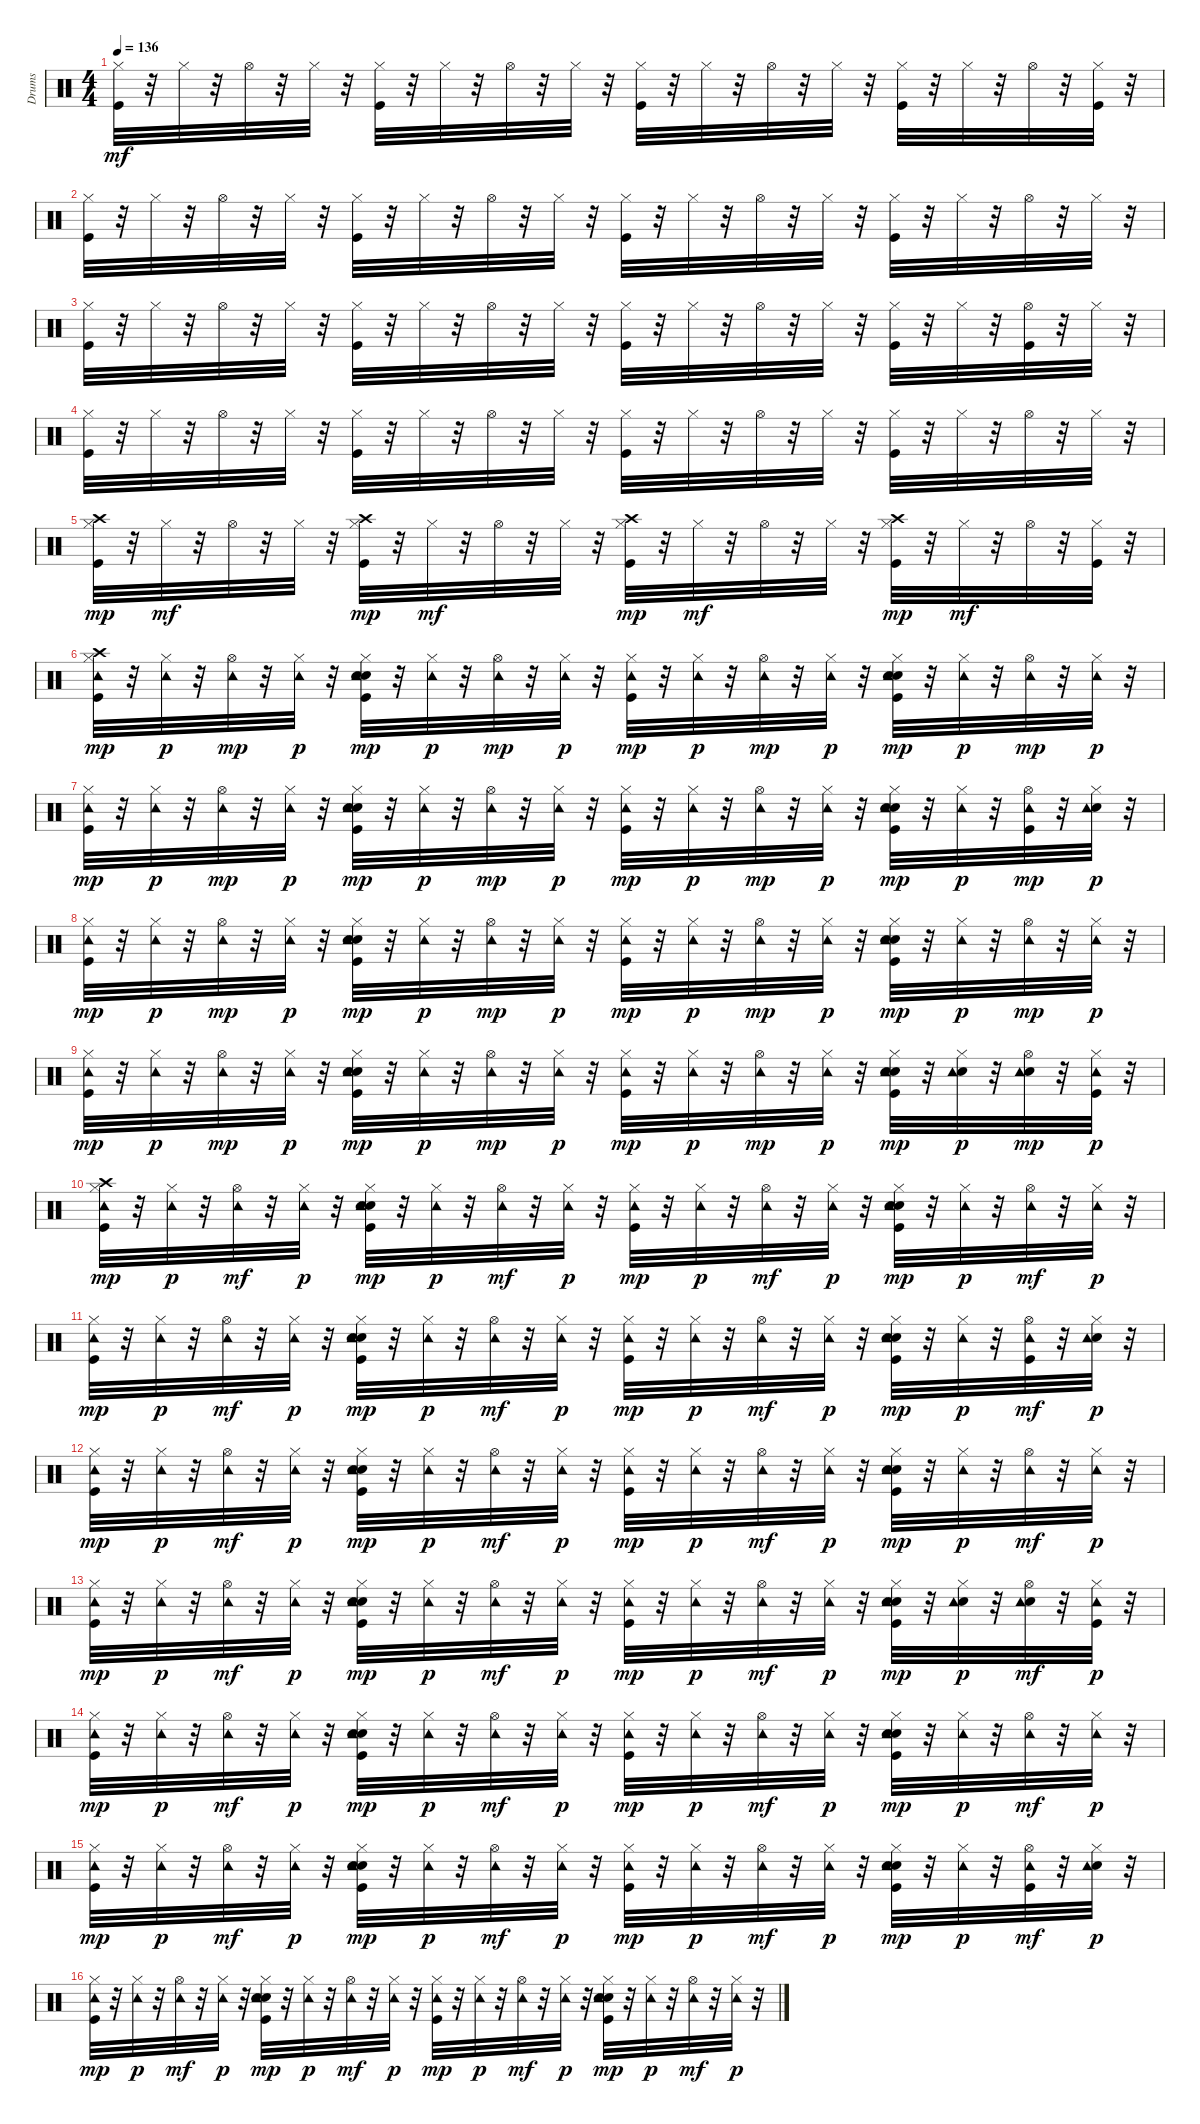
\track ("Drums" "Drums") {instrument percussion}
\staff {score}
\articulation defaults
\ts (4 4)
\tempo 136
\clef neutral
\ks c
("Kick (hit)" "Hi-Hat (closed)").32{dy mf} r.32 "Hi-Hat (closed)".32 r.32 "Hi-Hat (open)".32 r.32 "Hi-Hat (closed)".32 r.32 ("Kick (hit)" "Hi-Hat (closed)").32 r.32 "Hi-Hat (closed)".32 r.32 "Hi-Hat (open)".32 r.32 "Hi-Hat (closed)".32 r.32 ("Kick (hit)" "Hi-Hat (closed)").32 r.32 "Hi-Hat (closed)".32 r.32 "Hi-Hat (open)".32 r.32 "Hi-Hat (closed)".32 r.32 ("Kick (hit)" "Hi-Hat (closed)").32 r.32 "Hi-Hat (closed)".32 r.32 "Hi-Hat (open)".32 r.32 ("Kick (hit)" "Hi-Hat (closed)").32 r.32 |
("Kick (hit)" "Hi-Hat (closed)").32 r.32 "Hi-Hat (closed)".32 r.32 "Hi-Hat (open)".32 r.32 "Hi-Hat (closed)".32 r.32 ("Kick (hit)" "Hi-Hat (closed)").32 r.32 "Hi-Hat (closed)".32 r.32 "Hi-Hat (open)".32 r.32 "Hi-Hat (closed)".32 r.32 ("Kick (hit)" "Hi-Hat (closed)").32 r.32 "Hi-Hat (closed)".32 r.32 "Hi-Hat (open)".32 r.32 "Hi-Hat (closed)".32 r.32 ("Kick (hit)" "Hi-Hat (closed)").32 r.32 "Hi-Hat (closed)".32 r.32 "Hi-Hat (open)".32 r.32 "Hi-Hat (closed)".32 r.32 |
("Kick (hit)" "Hi-Hat (closed)").32 r.32 "Hi-Hat (closed)".32 r.32 "Hi-Hat (open)".32 r.32 "Hi-Hat (closed)".32 r.32 ("Kick (hit)" "Hi-Hat (closed)").32 r.32 "Hi-Hat (closed)".32 r.32 "Hi-Hat (open)".32 r.32 "Hi-Hat (closed)".32 r.32 ("Kick (hit)" "Hi-Hat (closed)").32 r.32 "Hi-Hat (closed)".32 r.32 "Hi-Hat (open)".32 r.32 "Hi-Hat (closed)".32 r.32 ("Kick (hit)" "Hi-Hat (closed)").32 r.32 "Hi-Hat (closed)".32 r.32 ("Kick (hit)" "Hi-Hat (open)").32 r.32 "Hi-Hat (closed)".32 r.32 |
("Kick (hit)" "Hi-Hat (closed)").32 r.32 "Hi-Hat (closed)".32 r.32 "Hi-Hat (open)".32 r.32 "Hi-Hat (closed)".32 r.32 ("Kick (hit)" "Hi-Hat (closed)").32 r.32 "Hi-Hat (closed)".32 r.32 "Hi-Hat (open)".32 r.32 "Hi-Hat (closed)".32 r.32 ("Kick (hit)" "Hi-Hat (closed)").32 r.32 "Hi-Hat (closed)".32 r.32 "Hi-Hat (open)".32 r.32 "Hi-Hat (closed)".32 r.32 ("Kick (hit)" "Hi-Hat (closed)").32 r.32 "Hi-Hat (closed)".32 r.32 "Hi-Hat (open)".32 r.32 "Hi-Hat (closed)".32 r.32 |
("Kick (hit)" "Hi-Hat (closed)" "Crash high (hit)").32{dy mp} r.32 "Hi-Hat (closed)".32{dy mf} r.32 "Hi-Hat (open)".32 r.32 "Hi-Hat (closed)".32 r.32 ("Kick (hit)" "Hi-Hat (closed)" "Crash high (hit)").32{dy mp} r.32 "Hi-Hat (closed)".32{dy mf} r.32 "Hi-Hat (open)".32 r.32 "Hi-Hat (closed)".32 r.32 ("Kick (hit)" "Hi-Hat (closed)" "Crash high (hit)").32{dy mp} r.32 "Hi-Hat (closed)".32{dy mf} r.32 "Hi-Hat (open)".32 r.32 "Hi-Hat (closed)".32 r.32 ("Kick (hit)" "Hi-Hat (closed)" "Crash high (hit)").32{dy mp} r.32 "Hi-Hat (closed)".32{dy mf} r.32 "Hi-Hat (open)".32 r.32 ("Kick (hit)" "Hi-Hat (closed)").32 r.32 |
("Kick (hit)" "Hi-Hat (closed)" "Crash high (hit)" "Tambourine (hit)").32{dy mp} r.32 ("Hi-Hat (closed)" "Tambourine (hit)").32{dy p} r.32 ("Hi-Hat (open)" "Tambourine (hit)").32{dy mp} r.32 ("Hi-Hat (closed)" "Tambourine (hit)").32{dy p} r.32 ("Kick (hit)" "Snare (hit) 2" "Hand Clap (hit)" "Hi-Hat (closed)" "Tambourine (hit)").32{dy mp} r.32 ("Hi-Hat (closed)" "Tambourine (hit)").32{dy p} r.32 ("Hi-Hat (open)" "Tambourine (hit)").32{dy mp} r.32 ("Hi-Hat (closed)" "Tambourine (hit)").32{dy p} r.32 ("Kick (hit)" "Hi-Hat (closed)" "Tambourine (hit)").32{dy mp} r.32 ("Hi-Hat (closed)" "Tambourine (hit)").32{dy p} r.32 ("Hi-Hat (open)" "Tambourine (hit)").32{dy mp} r.32 ("Hi-Hat (closed)" "Tambourine (hit)").32{dy p} r.32 ("Kick (hit)" "Snare (hit) 2" "Hand Clap (hit)" "Hi-Hat (closed)" "Tambourine (hit)").32{dy mp} r.32 ("Hi-Hat (closed)" "Tambourine (hit)").32{dy p} r.32 ("Hi-Hat (open)" "Tambourine (hit)").32{dy mp} r.32 ("Hi-Hat (closed)" "Tambourine (hit)").32{dy p} r.32 |
("Kick (hit)" "Hi-Hat (closed)" "Tambourine (hit)").32{dy mp} r.32 ("Hi-Hat (closed)" "Tambourine (hit)").32{dy p} r.32 ("Hi-Hat (open)" "Tambourine (hit)").32{dy mp} r.32 ("Hi-Hat (closed)" "Tambourine (hit)").32{dy p} r.32 ("Kick (hit)" "Snare (hit) 2" "Hand Clap (hit)" "Hi-Hat (closed)" "Tambourine (hit)").32{dy mp} r.32 ("Hi-Hat (closed)" "Tambourine (hit)").32{dy p} r.32 ("Hi-Hat (open)" "Tambourine (hit)").32{dy mp} r.32 ("Hi-Hat (closed)" "Tambourine (hit)").32{dy p} r.32 ("Kick (hit)" "Hi-Hat (closed)" "Tambourine (hit)").32{dy mp} r.32 ("Hi-Hat (closed)" "Tambourine (hit)").32{dy p} r.32 ("Hi-Hat (open)" "Tambourine (hit)").32{dy mp} r.32 ("Hi-Hat (closed)" "Tambourine (hit)").32{dy p} r.32 ("Kick (hit)" "Snare (hit) 2" "Hand Clap (hit)" "Hi-Hat (closed)" "Tambourine (hit)").32{dy mp} r.32 ("Hi-Hat (closed)" "Tambourine (hit)").32{dy p} r.32 ("Kick (hit)" "Hi-Hat (open)" "Tambourine (hit)").32{dy mp} r.32 ("Hand Clap (hit)" "Hi-Hat (closed)" "Tambourine (hit)").32{dy p} r.32 |
("Kick (hit)" "Hi-Hat (closed)" "Tambourine (hit)").32{dy mp} r.32 ("Hi-Hat (closed)" "Tambourine (hit)").32{dy p} r.32 ("Hi-Hat (open)" "Tambourine (hit)").32{dy mp} r.32 ("Hi-Hat (closed)" "Tambourine (hit)").32{dy p} r.32 ("Kick (hit)" "Snare (hit) 2" "Hand Clap (hit)" "Hi-Hat (closed)" "Tambourine (hit)").32{dy mp} r.32 ("Hi-Hat (closed)" "Tambourine (hit)").32{dy p} r.32 ("Hi-Hat (open)" "Tambourine (hit)").32{dy mp} r.32 ("Hi-Hat (closed)" "Tambourine (hit)").32{dy p} r.32 ("Kick (hit)" "Hi-Hat (closed)" "Tambourine (hit)").32{dy mp} r.32 ("Hi-Hat (closed)" "Tambourine (hit)").32{dy p} r.32 ("Hi-Hat (open)" "Tambourine (hit)").32{dy mp} r.32 ("Hi-Hat (closed)" "Tambourine (hit)").32{dy p} r.32 ("Kick (hit)" "Snare (hit) 2" "Hand Clap (hit)" "Hi-Hat (closed)" "Tambourine (hit)").32{dy mp} r.32 ("Hi-Hat (closed)" "Tambourine (hit)").32{dy p} r.32 ("Hi-Hat (open)" "Tambourine (hit)").32{dy mp} r.32 ("Hi-Hat (closed)" "Tambourine (hit)").32{dy p} r.32 |
("Kick (hit)" "Hi-Hat (closed)" "Tambourine (hit)").32{dy mp} r.32 ("Hi-Hat (closed)" "Tambourine (hit)").32{dy p} r.32 ("Hi-Hat (open)" "Tambourine (hit)").32{dy mp} r.32 ("Hi-Hat (closed)" "Tambourine (hit)").32{dy p} r.32 ("Kick (hit)" "Snare (hit) 2" "Hand Clap (hit)" "Hi-Hat (closed)" "Tambourine (hit)").32{dy mp} r.32 ("Hi-Hat (closed)" "Tambourine (hit)").32{dy p} r.32 ("Hi-Hat (open)" "Tambourine (hit)").32{dy mp} r.32 ("Hi-Hat (closed)" "Tambourine (hit)").32{dy p} r.32 ("Kick (hit)" "Hi-Hat (closed)" "Tambourine (hit)").32{dy mp} r.32 ("Hi-Hat (closed)" "Tambourine (hit)").32{dy p} r.32 ("Hi-Hat (open)" "Tambourine (hit)").32{dy mp} r.32 ("Hi-Hat (closed)" "Tambourine (hit)").32{dy p} r.32 ("Kick (hit)" "Snare (hit) 2" "Hand Clap (hit)" "Hi-Hat (closed)" "Tambourine (hit)").32{dy mp} r.32 ("Hand Clap (hit)" "Hi-Hat (closed)" "Tambourine (hit)").32{dy p} r.32 ("Hand Clap (hit)" "Hi-Hat (open)" "Tambourine (hit)").32{dy mp} r.32 ("Kick (hit)" "Hi-Hat (closed)" "Tambourine (hit)").32{dy p} r.32 |
("Kick (hit)" "Hi-Hat (closed)" "Crash high (hit)" "Tambourine (hit)").32{dy mp} r.32 ("Hi-Hat (closed)" "Tambourine (hit)").32{dy p} r.32 ("Hi-Hat (open)" "Tambourine (hit)").32{dy mf} r.32 ("Hi-Hat (closed)" "Tambourine (hit)").32{dy p} r.32 ("Kick (hit)" "Snare (hit) 2" "Hand Clap (hit)" "Hi-Hat (closed)" "Tambourine (hit)").32{dy mp} r.32 ("Hi-Hat (closed)" "Tambourine (hit)").32{dy p} r.32 ("Hi-Hat (open)" "Tambourine (hit)").32{dy mf} r.32 ("Hi-Hat (closed)" "Tambourine (hit)").32{dy p} r.32 ("Kick (hit)" "Hi-Hat (closed)" "Tambourine (hit)").32{dy mp} r.32 ("Hi-Hat (closed)" "Tambourine (hit)").32{dy p} r.32 ("Hi-Hat (open)" "Tambourine (hit)").32{dy mf} r.32 ("Hi-Hat (closed)" "Tambourine (hit)").32{dy p} r.32 ("Kick (hit)" "Snare (hit) 2" "Hand Clap (hit)" "Hi-Hat (closed)" "Tambourine (hit)").32{dy mp} r.32 ("Hi-Hat (closed)" "Tambourine (hit)").32{dy p} r.32 ("Hi-Hat (open)" "Tambourine (hit)").32{dy mf} r.32 ("Hi-Hat (closed)" "Tambourine (hit)").32{dy p} r.32 |
("Kick (hit)" "Hi-Hat (closed)" "Tambourine (hit)").32{dy mp} r.32 ("Hi-Hat (closed)" "Tambourine (hit)").32{dy p} r.32 ("Hi-Hat (open)" "Tambourine (hit)").32{dy mf} r.32 ("Hi-Hat (closed)" "Tambourine (hit)").32{dy p} r.32 ("Kick (hit)" "Snare (hit) 2" "Hand Clap (hit)" "Hi-Hat (closed)" "Tambourine (hit)").32{dy mp} r.32 ("Hi-Hat (closed)" "Tambourine (hit)").32{dy p} r.32 ("Hi-Hat (open)" "Tambourine (hit)").32{dy mf} r.32 ("Hi-Hat (closed)" "Tambourine (hit)").32{dy p} r.32 ("Kick (hit)" "Hi-Hat (closed)" "Tambourine (hit)").32{dy mp} r.32 ("Hi-Hat (closed)" "Tambourine (hit)").32{dy p} r.32 ("Hi-Hat (open)" "Tambourine (hit)").32{dy mf} r.32 ("Hi-Hat (closed)" "Tambourine (hit)").32{dy p} r.32 ("Kick (hit)" "Snare (hit) 2" "Hand Clap (hit)" "Hi-Hat (closed)" "Tambourine (hit)").32{dy mp} r.32 ("Hi-Hat (closed)" "Tambourine (hit)").32{dy p} r.32 ("Kick (hit)" "Hi-Hat (open)" "Tambourine (hit)").32{dy mf} r.32 ("Hand Clap (hit)" "Hi-Hat (closed)" "Tambourine (hit)").32{dy p} r.32 |
("Kick (hit)" "Hi-Hat (closed)" "Tambourine (hit)").32{dy mp} r.32 ("Hi-Hat (closed)" "Tambourine (hit)").32{dy p} r.32 ("Hi-Hat (open)" "Tambourine (hit)").32{dy mf} r.32 ("Hi-Hat (closed)" "Tambourine (hit)").32{dy p} r.32 ("Kick (hit)" "Snare (hit) 2" "Hand Clap (hit)" "Hi-Hat (closed)" "Tambourine (hit)").32{dy mp} r.32 ("Hi-Hat (closed)" "Tambourine (hit)").32{dy p} r.32 ("Hi-Hat (open)" "Tambourine (hit)").32{dy mf} r.32 ("Hi-Hat (closed)" "Tambourine (hit)").32{dy p} r.32 ("Kick (hit)" "Hi-Hat (closed)" "Tambourine (hit)").32{dy mp} r.32 ("Hi-Hat (closed)" "Tambourine (hit)").32{dy p} r.32 ("Hi-Hat (open)" "Tambourine (hit)").32{dy mf} r.32 ("Hi-Hat (closed)" "Tambourine (hit)").32{dy p} r.32 ("Kick (hit)" "Snare (hit) 2" "Hand Clap (hit)" "Hi-Hat (closed)" "Tambourine (hit)").32{dy mp} r.32 ("Hi-Hat (closed)" "Tambourine (hit)").32{dy p} r.32 ("Hi-Hat (open)" "Tambourine (hit)").32{dy mf} r.32 ("Hi-Hat (closed)" "Tambourine (hit)").32{dy p} r.32 |
("Kick (hit)" "Hi-Hat (closed)" "Tambourine (hit)").32{dy mp} r.32 ("Hi-Hat (closed)" "Tambourine (hit)").32{dy p} r.32 ("Hi-Hat (open)" "Tambourine (hit)").32{dy mf} r.32 ("Hi-Hat (closed)" "Tambourine (hit)").32{dy p} r.32 ("Kick (hit)" "Snare (hit) 2" "Hand Clap (hit)" "Hi-Hat (closed)" "Tambourine (hit)").32{dy mp} r.32 ("Hi-Hat (closed)" "Tambourine (hit)").32{dy p} r.32 ("Hi-Hat (open)" "Tambourine (hit)").32{dy mf} r.32 ("Hi-Hat (closed)" "Tambourine (hit)").32{dy p} r.32 ("Kick (hit)" "Hi-Hat (closed)" "Tambourine (hit)").32{dy mp} r.32 ("Hi-Hat (closed)" "Tambourine (hit)").32{dy p} r.32 ("Hi-Hat (open)" "Tambourine (hit)").32{dy mf} r.32 ("Hi-Hat (closed)" "Tambourine (hit)").32{dy p} r.32 ("Kick (hit)" "Snare (hit) 2" "Hand Clap (hit)" "Hi-Hat (closed)" "Tambourine (hit)").32{dy mp} r.32 ("Hand Clap (hit)" "Hi-Hat (closed)" "Tambourine (hit)").32{dy p} r.32 ("Hand Clap (hit)" "Hi-Hat (open)" "Tambourine (hit)").32{dy mf} r.32 ("Kick (hit)" "Hi-Hat (closed)" "Tambourine (hit)").32{dy p} r.32 |
("Kick (hit)" "Hi-Hat (closed)" "Tambourine (hit)").32{dy mp} r.32 ("Hi-Hat (closed)" "Tambourine (hit)").32{dy p} r.32 ("Hi-Hat (open)" "Tambourine (hit)").32{dy mf} r.32 ("Hi-Hat (closed)" "Tambourine (hit)").32{dy p} r.32 ("Kick (hit)" "Snare (hit) 2" "Hand Clap (hit)" "Hi-Hat (closed)" "Tambourine (hit)").32{dy mp} r.32 ("Hi-Hat (closed)" "Tambourine (hit)").32{dy p} r.32 ("Hi-Hat (open)" "Tambourine (hit)").32{dy mf} r.32 ("Hi-Hat (closed)" "Tambourine (hit)").32{dy p} r.32 ("Kick (hit)" "Hi-Hat (closed)" "Tambourine (hit)").32{dy mp} r.32 ("Hi-Hat (closed)" "Tambourine (hit)").32{dy p} r.32 ("Hi-Hat (open)" "Tambourine (hit)").32{dy mf} r.32 ("Hi-Hat (closed)" "Tambourine (hit)").32{dy p} r.32 ("Kick (hit)" "Snare (hit) 2" "Hand Clap (hit)" "Hi-Hat (closed)" "Tambourine (hit)").32{dy mp} r.32 ("Hi-Hat (closed)" "Tambourine (hit)").32{dy p} r.32 ("Hi-Hat (open)" "Tambourine (hit)").32{dy mf} r.32 ("Hi-Hat (closed)" "Tambourine (hit)").32{dy p} r.32 |
("Kick (hit)" "Hi-Hat (closed)" "Tambourine (hit)").32{dy mp} r.32 ("Hi-Hat (closed)" "Tambourine (hit)").32{dy p} r.32 ("Hi-Hat (open)" "Tambourine (hit)").32{dy mf} r.32 ("Hi-Hat (closed)" "Tambourine (hit)").32{dy p} r.32 ("Kick (hit)" "Snare (hit) 2" "Hand Clap (hit)" "Hi-Hat (closed)" "Tambourine (hit)").32{dy mp} r.32 ("Hi-Hat (closed)" "Tambourine (hit)").32{dy p} r.32 ("Hi-Hat (open)" "Tambourine (hit)").32{dy mf} r.32 ("Hi-Hat (closed)" "Tambourine (hit)").32{dy p} r.32 ("Kick (hit)" "Hi-Hat (closed)" "Tambourine (hit)").32{dy mp} r.32 ("Hi-Hat (closed)" "Tambourine (hit)").32{dy p} r.32 ("Hi-Hat (open)" "Tambourine (hit)").32{dy mf} r.32 ("Hi-Hat (closed)" "Tambourine (hit)").32{dy p} r.32 ("Kick (hit)" "Snare (hit) 2" "Hand Clap (hit)" "Hi-Hat (closed)" "Tambourine (hit)").32{dy mp} r.32 ("Hi-Hat (closed)" "Tambourine (hit)").32{dy p} r.32 ("Kick (hit)" "Hi-Hat (open)" "Tambourine (hit)").32{dy mf} r.32 ("Hand Clap (hit)" "Hi-Hat (closed)" "Tambourine (hit)").32{dy p} r.32 |
("Kick (hit)" "Hi-Hat (closed)" "Tambourine (hit)").32{dy mp} r.32 ("Hi-Hat (closed)" "Tambourine (hit)").32{dy p} r.32 ("Hi-Hat (open)" "Tambourine (hit)").32{dy mf} r.32 ("Hi-Hat (closed)" "Tambourine (hit)").32{dy p} r.32 ("Kick (hit)" "Snare (hit) 2" "Hand Clap (hit)" "Hi-Hat (closed)" "Tambourine (hit)").32{dy mp} r.32 ("Hi-Hat (closed)" "Tambourine (hit)").32{dy p} r.32 ("Hi-Hat (open)" "Tambourine (hit)").32{dy mf} r.32 ("Hi-Hat (closed)" "Tambourine (hit)").32{dy p} r.32 ("Kick (hit)" "Hi-Hat (closed)" "Tambourine (hit)").32{dy mp} r.32 ("Hi-Hat (closed)" "Tambourine (hit)").32{dy p} r.32 ("Hi-Hat (open)" "Tambourine (hit)").32{dy mf} r.32 ("Hi-Hat (closed)" "Tambourine (hit)").32{dy p} r.32 ("Kick (hit)" "Snare (hit) 2" "Hand Clap (hit)" "Hi-Hat (closed)" "Tambourine (hit)").32{dy mp} r.32 ("Hi-Hat (closed)" "Tambourine (hit)").32{dy p} r.32 ("Hi-Hat (open)" "Tambourine (hit)").32{dy mf} r.32 ("Hi-Hat (closed)" "Tambourine (hit)").32{dy p} r.32
